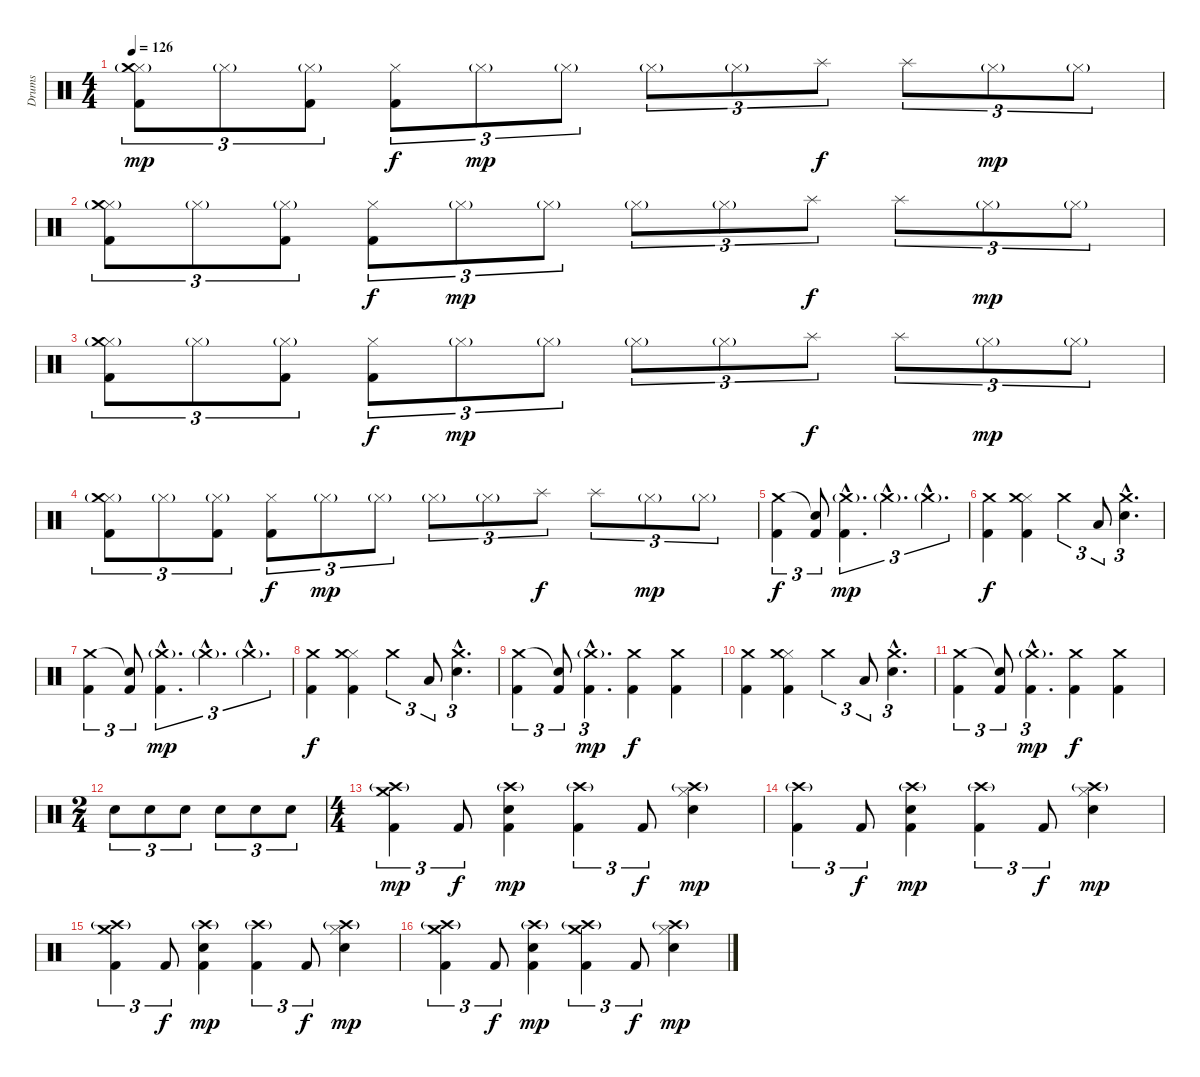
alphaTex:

\track ("Drums" "Drums") {instrument percussion}
\staff {score}
\articulation defaults
\ts (4 4)
\tempo 126
\clef neutral
\ks c
("Kick (hit) 2" "Hi-Hat (closed)"{g} "Crash medium (hit)").8{tu (3 2) dy mp} "Hi-Hat (closed)"{g}.8{tu (3 2)} ("Kick (hit) 2" "Hi-Hat (closed)"{g}).8{tu (3 2)} ("Kick (hit) 2" "Hi-Hat (closed)").8{tu (3 2) dy f} "Hi-Hat (closed)"{g}.8{tu (3 2) dy mp} "Hi-Hat (closed)"{g}.8{tu (3 2)} "Hi-Hat (closed)"{g}.8{tu (3 2)} "Hi-Hat (closed)"{g}.8{tu (3 2)} "Splash (hit)".8{tu (3 2) dy f} "Splash (hit)".8{tu (3 2)} "Hi-Hat (closed)"{g}.8{tu (3 2) dy mp} "Hi-Hat (closed)"{g}.8{tu (3 2)} |
("Kick (hit) 2" "Hi-Hat (closed)"{g} "Crash medium (hit)").8{tu (3 2)} "Hi-Hat (closed)"{g}.8{tu (3 2)} ("Kick (hit) 2" "Hi-Hat (closed)"{g}).8{tu (3 2)} ("Kick (hit) 2" "Hi-Hat (closed)").8{tu (3 2) dy f} "Hi-Hat (closed)"{g}.8{tu (3 2) dy mp} "Hi-Hat (closed)"{g}.8{tu (3 2)} "Hi-Hat (closed)"{g}.8{tu (3 2)} "Hi-Hat (closed)"{g}.8{tu (3 2)} "Splash (hit)".8{tu (3 2) dy f} "Splash (hit)".8{tu (3 2)} "Hi-Hat (closed)"{g}.8{tu (3 2) dy mp} "Hi-Hat (closed)"{g}.8{tu (3 2)} |
("Kick (hit) 2" "Hi-Hat (closed)"{g} "Crash medium (hit)").8{tu (3 2)} "Hi-Hat (closed)"{g}.8{tu (3 2)} ("Kick (hit) 2" "Hi-Hat (closed)"{g}).8{tu (3 2)} ("Kick (hit) 2" "Hi-Hat (closed)").8{tu (3 2) dy f} "Hi-Hat (closed)"{g}.8{tu (3 2) dy mp} "Hi-Hat (closed)"{g}.8{tu (3 2)} "Hi-Hat (closed)"{g}.8{tu (3 2)} "Hi-Hat (closed)"{g}.8{tu (3 2)} "Splash (hit)".8{tu (3 2) dy f} "Splash (hit)".8{tu (3 2)} "Hi-Hat (closed)"{g}.8{tu (3 2) dy mp} "Hi-Hat (closed)"{g}.8{tu (3 2)} |
("Kick (hit) 2" "Hi-Hat (closed)"{g} "Crash medium (hit)").8{tu (3 2)} "Hi-Hat (closed)"{g}.8{tu (3 2)} ("Kick (hit) 2" "Hi-Hat (closed)"{g}).8{tu (3 2)} ("Kick (hit) 2" "Hi-Hat (closed)").8{tu (3 2) dy f} "Hi-Hat (closed)"{g}.8{tu (3 2) dy mp} "Hi-Hat (closed)"{g}.8{tu (3 2)} "Hi-Hat (closed)"{g}.8{tu (3 2)} "Hi-Hat (closed)"{g}.8{tu (3 2)} "Splash (hit)".8{tu (3 2) dy f} "Splash (hit)".8{tu (3 2)} "Hi-Hat (closed)"{g}.8{tu (3 2) dy mp} "Hi-Hat (closed)"{g}.8{tu (3 2)} |
("Kick (hit) 2" "Crash medium (hit)").4{tu (3 2) dy f} ("Kick (hit) 2" "Snare (hit)"{t}).8{tu (3 2)} ("Kick (hit) 2"{hac} "Crash medium (hit)"{g hac}).4{d tu (3 2) dy mp} "Crash medium (hit)"{g hac}.4{d tu (3 2)} "Crash medium (hit)"{g hac}.4{d tu (3 2)} |
("Kick (hit) 2" "Crash medium (hit)").4{dy f} ("Kick (hit) 2" "Hi-Hat (closed)" "Crash medium (hit)").4 "Crash medium (hit)".4{tu (3 2)} "Low Tom (hit)".8{tu (3 2)} ("Snare (hit) 2"{hac} "Crash medium (hit)"{hac}).4{d tu (3 2)} |
("Kick (hit) 2" "Crash medium (hit)").4{tu (3 2)} ("Kick (hit) 2" "Snare (hit)"{t}).8{tu (3 2)} ("Kick (hit) 2"{hac} "Crash medium (hit)"{g hac}).4{d tu (3 2) dy mp} "Crash medium (hit)"{g hac}.4{d tu (3 2)} "Crash medium (hit)"{g hac}.4{d tu (3 2)} |
("Kick (hit) 2" "Crash medium (hit)").4{dy f} ("Kick (hit) 2" "Hi-Hat (closed)" "Crash medium (hit)").4 "Crash medium (hit)".4{tu (3 2)} "Low Tom (hit)".8{tu (3 2)} ("Snare (hit) 2"{hac} "Crash medium (hit)"{hac}).4{d tu (3 2)} |
("Kick (hit) 2" "Crash medium (hit)").4{tu (3 2)} ("Kick (hit) 2" "Snare (hit)"{t}).8{tu (3 2)} ("Kick (hit) 2"{hac} "Crash medium (hit)"{g hac}).4{d tu (3 2) dy mp} ("Kick (hit) 2" "Crash medium (hit)").4{dy f} ("Kick (hit) 2" "Crash medium (hit)").4 |
("Kick (hit) 2" "Crash medium (hit)").4 ("Kick (hit) 2" "Hi-Hat (closed)" "Crash medium (hit)").4 "Crash medium (hit)".4{tu (3 2)} "Low Tom (hit)".8{tu (3 2)} ("Snare (hit) 2"{hac} "Crash medium (hit)"{hac}).4{d tu (3 2)} |
("Kick (hit) 2" "Crash medium (hit)").4{tu (3 2)} ("Kick (hit) 2" "Snare (hit)"{t}).8{tu (3 2)} ("Kick (hit) 2"{hac} "Crash medium (hit)"{g hac}).4{d tu (3 2) dy mp} ("Kick (hit) 2" "Crash medium (hit)").4{dy f} ("Kick (hit) 2" "Crash medium (hit)").4 |
\ts (2 4)
"Snare (hit) 2".8{tu (3 2)} "Snare (hit) 2".8{tu (3 2)} "Snare (hit) 2".8{tu (3 2)} "Snare (hit) 2".8{tu (3 2)} "Snare (hit) 2".8{tu (3 2)} "Snare (hit) 2".8{tu (3 2)} |
\ts (4 4)
("Kick (hit) 2" "Crash medium (hit)" "Crash high (hit)"{g}).4{tu (3 2) dy mp volume 16} "Kick (hit) 2".8{tu (3 2) dy f} ("Kick (hit) 2" "Snare (hit) 2" "Crash high (hit)"{g}).4{dy mp} ("Kick (hit) 2" "Crash high (hit)"{g}).4{tu (3 2)} "Kick (hit) 2".8{tu (3 2) dy f} ("Hi-Hat (closed)" "Snare (hit) 2" "Crash high (hit)"{g}).4{dy mp} |
("Kick (hit) 2" "Crash high (hit)"{g}).4{tu (3 2)} "Kick (hit) 2".8{tu (3 2) dy f} ("Kick (hit) 2" "Snare (hit) 2" "Crash high (hit)"{g}).4{dy mp} ("Kick (hit) 2" "Crash high (hit)"{g}).4{tu (3 2)} "Kick (hit) 2".8{tu (3 2) dy f} ("Hi-Hat (closed)" "Snare (hit) 2" "Crash high (hit)"{g}).4{dy mp} |
("Kick (hit) 2" "Crash medium (hit)" "Crash high (hit)"{g}).4{tu (3 2)} "Kick (hit) 2".8{tu (3 2) dy f} ("Kick (hit) 2" "Snare (hit) 2" "Crash high (hit)"{g}).4{dy mp} ("Kick (hit) 2" "Crash high (hit)"{g}).4{tu (3 2)} "Kick (hit) 2".8{tu (3 2) dy f} ("Hi-Hat (closed)" "Snare (hit) 2" "Crash high (hit)"{g}).4{dy mp} |
("Kick (hit) 2" "Crash medium (hit)" "Crash high (hit)"{g}).4{tu (3 2)} "Kick (hit) 2".8{tu (3 2) dy f} ("Kick (hit) 2" "Snare (hit) 2" "Crash high (hit)"{g}).4{dy mp} ("Kick (hit) 2" "Crash medium (hit)" "Crash high (hit)"{g}).4{tu (3 2)} "Kick (hit) 2".8{tu (3 2) dy f} ("Hi-Hat (closed)" "Snare (hit) 2" "Crash high (hit)"{g}).4{dy mp}
